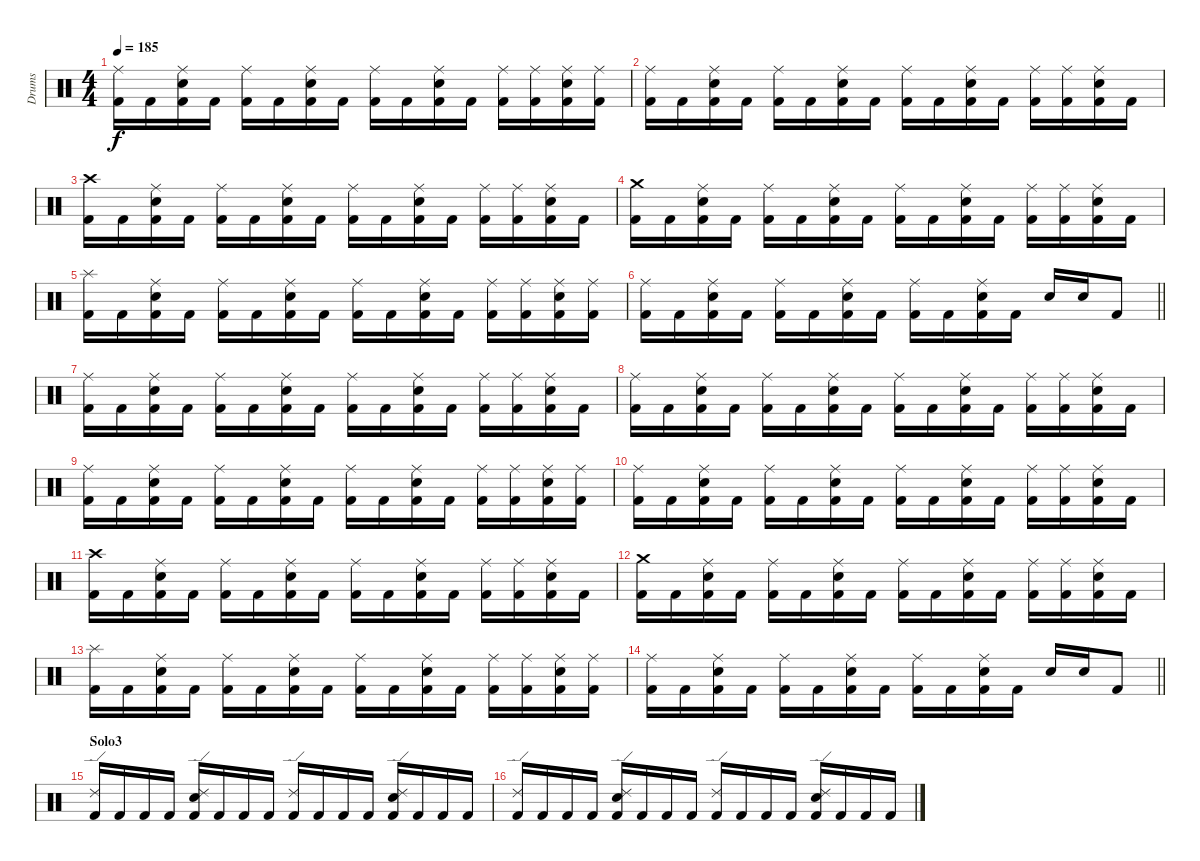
\track ("Drums" "Drums") {instrument percussion}
\staff {score}
\articulation defaults
\ts (4 4)
\tempo 185
\clef neutral
\ks c
("Ride (middle)" "Kick (hit) 2").16{dy f} "Kick (hit) 2".16 ("Ride (middle)" "Electric Snare (hit)" "Kick (hit) 2").16 "Kick (hit) 2".16 ("Ride (middle)" "Kick (hit) 2").16 "Kick (hit) 2".16 ("Ride (middle)" "Electric Snare (hit)" "Kick (hit) 2").16 "Kick (hit) 2".16 ("Ride (middle)" "Kick (hit) 2").16 "Kick (hit) 2".16 ("Ride (middle)" "Electric Snare (hit)" "Kick (hit) 2").16 "Kick (hit) 2".16 ("Ride (middle)" "Kick (hit) 2").16 ("Ride (middle)" "Kick (hit) 2").16 ("Ride (middle)" "Electric Snare (hit)" "Kick (hit) 2").16 ("Ride (middle)" "Kick (hit) 2").16 |
("Ride (middle)" "Kick (hit) 2").16 "Kick (hit) 2".16 ("Ride (middle)" "Electric Snare (hit)" "Kick (hit) 2").16 "Kick (hit) 2".16 ("Ride (middle)" "Kick (hit) 2").16 "Kick (hit) 2".16 ("Ride (middle)" "Electric Snare (hit)" "Kick (hit) 2").16 "Kick (hit) 2".16 ("Ride (middle)" "Kick (hit) 2").16 "Kick (hit) 2".16 ("Ride (middle)" "Electric Snare (hit)" "Kick (hit) 2").16 "Kick (hit) 2".16 ("Ride (middle)" "Kick (hit) 2").16 ("Ride (middle)" "Kick (hit) 2").16 ("Ride (middle)" "Electric Snare (hit)" "Kick (hit) 2").16 "Kick (hit) 2".16 |
("Crash high (hit)" "Kick (hit) 2").16 "Kick (hit) 2".16 ("Ride (middle)" "Electric Snare (hit)" "Kick (hit) 2").16 "Kick (hit) 2".16 ("Ride (middle)" "Kick (hit) 2").16 "Kick (hit) 2".16 ("Ride (middle)" "Electric Snare (hit)" "Kick (hit) 2").16 "Kick (hit) 2".16 ("Ride (middle)" "Kick (hit) 2").16 "Kick (hit) 2".16 ("Ride (middle)" "Electric Snare (hit)" "Kick (hit) 2").16 "Kick (hit) 2".16 ("Ride (middle)" "Kick (hit) 2").16 ("Ride (middle)" "Kick (hit) 2").16 ("Ride (middle)" "Electric Snare (hit)" "Kick (hit) 2").16 "Kick (hit) 2".16 |
("Crash medium (hit)" "Kick (hit) 2").16 "Kick (hit) 2".16 ("Ride (middle)" "Electric Snare (hit)" "Kick (hit) 2").16 "Kick (hit) 2".16 ("Ride (middle)" "Kick (hit) 2").16 "Kick (hit) 2".16 ("Ride (middle)" "Electric Snare (hit)" "Kick (hit) 2").16 "Kick (hit) 2".16 ("Ride (middle)" "Kick (hit) 2").16 "Kick (hit) 2".16 ("Ride (middle)" "Electric Snare (hit)" "Kick (hit) 2").16 "Kick (hit) 2".16 ("Ride (middle)" "Kick (hit) 2").16 ("Ride (middle)" "Kick (hit) 2").16 ("Ride (middle)" "Electric Snare (hit)" "Kick (hit) 2").16 "Kick (hit) 2".16 |
("Splash (hit)" "Kick (hit) 2").16 "Kick (hit) 2".16 ("Ride (middle)" "Electric Snare (hit)" "Kick (hit) 2").16 "Kick (hit) 2".16 ("Ride (middle)" "Kick (hit) 2").16 "Kick (hit) 2".16 ("Ride (middle)" "Electric Snare (hit)" "Kick (hit) 2").16 "Kick (hit) 2".16 ("Ride (middle)" "Kick (hit) 2").16 "Kick (hit) 2".16 ("Ride (middle)" "Electric Snare (hit)" "Kick (hit) 2").16 "Kick (hit) 2".16 ("Ride (middle)" "Kick (hit) 2").16 ("Ride (middle)" "Kick (hit) 2").16 ("Ride (middle)" "Electric Snare (hit)" "Kick (hit) 2").16 ("Ride (middle)" "Kick (hit) 2").16 |
\barLineRight lightlight
("Ride (middle)" "Kick (hit) 2").16 "Kick (hit) 2".16 ("Ride (middle)" "Electric Snare (hit)" "Kick (hit) 2").16 "Kick (hit) 2".16 ("Ride (middle)" "Kick (hit) 2").16 "Kick (hit) 2".16 ("Ride (middle)" "Electric Snare (hit)" "Kick (hit) 2").16 "Kick (hit) 2".16 ("Ride (middle)" "Kick (hit) 2").16 "Kick (hit) 2".16 ("Ride (middle)" "Electric Snare (hit)" "Kick (hit) 2").16 "Kick (hit) 2".16 "Electric Snare (hit)".16 "Electric Snare (hit)".16 "Kick (hit) 2".8 |
\section ("" "")
("Ride (middle)" "Kick (hit) 2").16 "Kick (hit) 2".16 ("Ride (middle)" "Electric Snare (hit)" "Kick (hit) 2").16 "Kick (hit) 2".16 ("Ride (middle)" "Kick (hit) 2").16 "Kick (hit) 2".16 ("Ride (middle)" "Electric Snare (hit)" "Kick (hit) 2").16 "Kick (hit) 2".16 ("Ride (middle)" "Kick (hit) 2").16 "Kick (hit) 2".16 ("Ride (middle)" "Electric Snare (hit)" "Kick (hit) 2").16 "Kick (hit) 2".16 ("Ride (middle)" "Kick (hit) 2").16 ("Ride (middle)" "Kick (hit) 2").16 ("Ride (middle)" "Electric Snare (hit)" "Kick (hit) 2").16 "Kick (hit) 2".16 |
("Ride (middle)" "Kick (hit) 2").16 "Kick (hit) 2".16 ("Ride (middle)" "Electric Snare (hit)" "Kick (hit) 2").16 "Kick (hit) 2".16 ("Ride (middle)" "Kick (hit) 2").16 "Kick (hit) 2".16 ("Ride (middle)" "Electric Snare (hit)" "Kick (hit) 2").16 "Kick (hit) 2".16 ("Ride (middle)" "Kick (hit) 2").16 "Kick (hit) 2".16 ("Ride (middle)" "Electric Snare (hit)" "Kick (hit) 2").16 "Kick (hit) 2".16 ("Ride (middle)" "Kick (hit) 2").16 ("Ride (middle)" "Kick (hit) 2").16 ("Ride (middle)" "Electric Snare (hit)" "Kick (hit) 2").16 "Kick (hit) 2".16 |
("Ride (middle)" "Kick (hit) 2").16 "Kick (hit) 2".16 ("Ride (middle)" "Electric Snare (hit)" "Kick (hit) 2").16 "Kick (hit) 2".16 ("Ride (middle)" "Kick (hit) 2").16 "Kick (hit) 2".16 ("Ride (middle)" "Electric Snare (hit)" "Kick (hit) 2").16 "Kick (hit) 2".16 ("Ride (middle)" "Kick (hit) 2").16 "Kick (hit) 2".16 ("Ride (middle)" "Electric Snare (hit)" "Kick (hit) 2").16 "Kick (hit) 2".16 ("Ride (middle)" "Kick (hit) 2").16 ("Ride (middle)" "Kick (hit) 2").16 ("Ride (middle)" "Electric Snare (hit)" "Kick (hit) 2").16 ("Ride (middle)" "Kick (hit) 2").16 |
("Ride (middle)" "Kick (hit) 2").16 "Kick (hit) 2".16 ("Ride (middle)" "Electric Snare (hit)" "Kick (hit) 2").16 "Kick (hit) 2".16 ("Ride (middle)" "Kick (hit) 2").16 "Kick (hit) 2".16 ("Ride (middle)" "Electric Snare (hit)" "Kick (hit) 2").16 "Kick (hit) 2".16 ("Ride (middle)" "Kick (hit) 2").16 "Kick (hit) 2".16 ("Ride (middle)" "Electric Snare (hit)" "Kick (hit) 2").16 "Kick (hit) 2".16 ("Ride (middle)" "Kick (hit) 2").16 ("Ride (middle)" "Kick (hit) 2").16 ("Ride (middle)" "Electric Snare (hit)" "Kick (hit) 2").16 "Kick (hit) 2".16 |
("Crash high (hit)" "Kick (hit) 2").16 "Kick (hit) 2".16 ("Ride (middle)" "Electric Snare (hit)" "Kick (hit) 2").16 "Kick (hit) 2".16 ("Ride (middle)" "Kick (hit) 2").16 "Kick (hit) 2".16 ("Ride (middle)" "Electric Snare (hit)" "Kick (hit) 2").16 "Kick (hit) 2".16 ("Ride (middle)" "Kick (hit) 2").16 "Kick (hit) 2".16 ("Ride (middle)" "Electric Snare (hit)" "Kick (hit) 2").16 "Kick (hit) 2".16 ("Ride (middle)" "Kick (hit) 2").16 ("Ride (middle)" "Kick (hit) 2").16 ("Ride (middle)" "Electric Snare (hit)" "Kick (hit) 2").16 "Kick (hit) 2".16 |
("Crash medium (hit)" "Kick (hit) 2").16 "Kick (hit) 2".16 ("Ride (middle)" "Electric Snare (hit)" "Kick (hit) 2").16 "Kick (hit) 2".16 ("Ride (middle)" "Kick (hit) 2").16 "Kick (hit) 2".16 ("Ride (middle)" "Electric Snare (hit)" "Kick (hit) 2").16 "Kick (hit) 2".16 ("Ride (middle)" "Kick (hit) 2").16 "Kick (hit) 2".16 ("Ride (middle)" "Electric Snare (hit)" "Kick (hit) 2").16 "Kick (hit) 2".16 ("Ride (middle)" "Kick (hit) 2").16 ("Ride (middle)" "Kick (hit) 2").16 ("Ride (middle)" "Electric Snare (hit)" "Kick (hit) 2").16 "Kick (hit) 2".16 |
("Splash (hit)" "Kick (hit) 2").16 "Kick (hit) 2".16 ("Ride (middle)" "Electric Snare (hit)" "Kick (hit) 2").16 "Kick (hit) 2".16 ("Ride (middle)" "Kick (hit) 2").16 "Kick (hit) 2".16 ("Ride (middle)" "Electric Snare (hit)" "Kick (hit) 2").16 "Kick (hit) 2".16 ("Ride (middle)" "Kick (hit) 2").16 "Kick (hit) 2".16 ("Ride (middle)" "Electric Snare (hit)" "Kick (hit) 2").16 "Kick (hit) 2".16 ("Ride (middle)" "Kick (hit) 2").16 ("Ride (middle)" "Kick (hit) 2").16 ("Ride (middle)" "Electric Snare (hit)" "Kick (hit) 2").16 ("Ride (middle)" "Kick (hit) 2").16 |
\barLineRight lightlight
("Ride (middle)" "Kick (hit) 2").16 "Kick (hit) 2".16 ("Ride (middle)" "Electric Snare (hit)" "Kick (hit) 2").16 "Kick (hit) 2".16 ("Ride (middle)" "Kick (hit) 2").16 "Kick (hit) 2".16 ("Ride (middle)" "Electric Snare (hit)" "Kick (hit) 2").16 "Kick (hit) 2".16 ("Ride (middle)" "Kick (hit) 2").16 "Kick (hit) 2".16 ("Ride (middle)" "Electric Snare (hit)" "Kick (hit) 2").16 "Kick (hit) 2".16 "Electric Snare (hit)".16 "Electric Snare (hit)".16 "Kick (hit) 2".8 |
\section ("" "Solo3")
("Ride (edge) 2" "Kick (hit) 2").16 "Kick (hit) 2".16 "Kick (hit) 2".16 "Kick (hit) 2".16 ("Ride (edge) 2" "Electric Snare (hit)" "Kick (hit) 2").16 "Kick (hit) 2".16 "Kick (hit) 2".16 "Kick (hit) 2".16 ("Ride (edge) 2" "Kick (hit) 2").16 "Kick (hit) 2".16 "Kick (hit) 2".16 "Kick (hit) 2".16 ("Ride (edge) 2" "Electric Snare (hit)" "Kick (hit) 2").16 "Kick (hit) 2".16 "Kick (hit) 2".16 "Kick (hit) 2".16 |
("Ride (edge) 2" "Kick (hit) 2").16 "Kick (hit) 2".16 "Kick (hit) 2".16 "Kick (hit) 2".16 ("Ride (edge) 2" "Electric Snare (hit)" "Kick (hit) 2").16 "Kick (hit) 2".16 "Kick (hit) 2".16 "Kick (hit) 2".16 ("Ride (edge) 2" "Kick (hit) 2").16 "Kick (hit) 2".16 "Kick (hit) 2".16 "Kick (hit) 2".16 ("Ride (edge) 2" "Electric Snare (hit)" "Kick (hit) 2").16 "Kick (hit) 2".16 "Kick (hit) 2".16 "Kick (hit) 2".16
